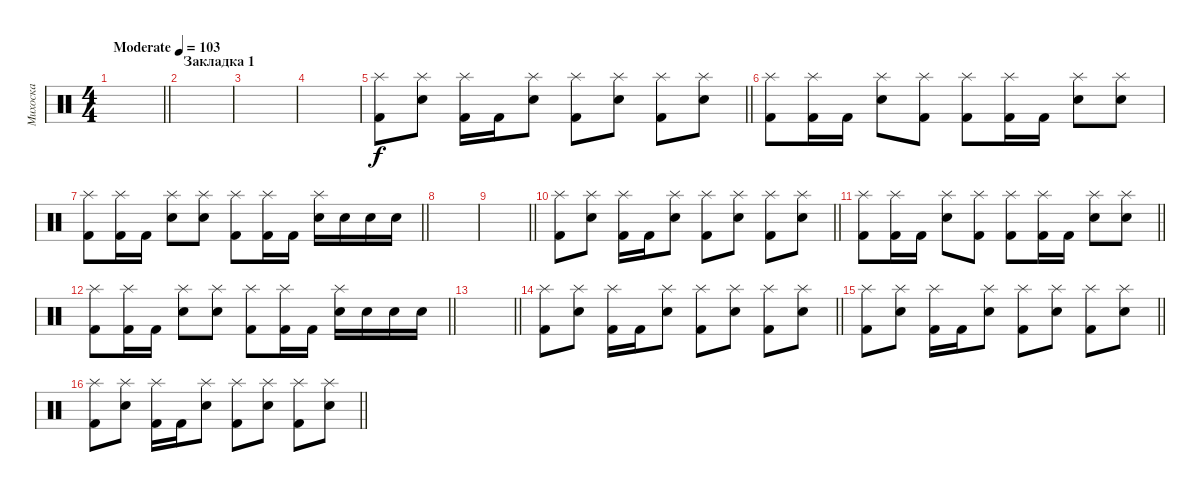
\track ("Михоска" "Михоска") {instrument percussion}
\staff {score}
\articulation defaults
\ts (4 4)
\tempo (103 "Moderate")
\clef neutral
\barLineRight lightlight
\ks c
|
\section ("" "Закладка 1")
|
|
|
\barLineRight lightlight
("Splash (hit)" "Kick (hit) 2").8 ("Splash (hit)" "Snare (hit) 2").8 ("Splash (hit)" "Kick (hit) 2").16 "Kick (hit) 2".16 ("Splash (hit)" "Snare (hit) 2").8 ("Splash (hit)" "Kick (hit) 2").8 ("Splash (hit)" "Snare (hit) 2").8 ("Splash (hit)" "Kick (hit) 2").8 ("Splash (hit)" "Snare (hit) 2").8 |
("Splash (hit)" "Kick (hit) 2").8 ("Splash (hit)" "Kick (hit) 2").16 "Kick (hit) 2".16 ("Splash (hit)" "Snare (hit) 2").8 ("Splash (hit)" "Kick (hit) 2").8 ("Splash (hit)" "Kick (hit) 2").8 ("Splash (hit)" "Kick (hit) 2").16 "Kick (hit) 2".16 ("Splash (hit)" "Snare (hit) 2").8 ("Splash (hit)" "Snare (hit) 2").8 |
\barLineRight lightlight
("Splash (hit)" "Kick (hit) 2").8 ("Splash (hit)" "Kick (hit) 2").16 "Kick (hit) 2".16 ("Splash (hit)" "Snare (hit) 2").8 ("Splash (hit)" "Snare (hit) 2").8 ("Splash (hit)" "Kick (hit) 2").8 ("Splash (hit)" "Kick (hit) 2").16 "Kick (hit) 2".16 ("Splash (hit)" "Snare (hit) 2").16 "Snare (hit) 2".16 "Snare (hit) 2".16 "Snare (hit) 2".16 |
|
\barLineRight lightlight
|
\barLineRight lightlight
("Splash (hit)" "Kick (hit) 2").8 ("Splash (hit)" "Snare (hit) 2").8 ("Splash (hit)" "Kick (hit) 2").16 "Kick (hit) 2".16 ("Splash (hit)" "Snare (hit) 2").8 ("Splash (hit)" "Kick (hit) 2").8 ("Splash (hit)" "Snare (hit) 2").8 ("Splash (hit)" "Kick (hit) 2").8 ("Splash (hit)" "Snare (hit) 2").8 |
\barLineRight lightlight
("Splash (hit)" "Kick (hit) 2").8 ("Splash (hit)" "Kick (hit) 2").16 "Kick (hit) 2".16 ("Splash (hit)" "Snare (hit) 2").8 ("Splash (hit)" "Kick (hit) 2").8 ("Splash (hit)" "Kick (hit) 2").8 ("Splash (hit)" "Kick (hit) 2").16 "Kick (hit) 2".16 ("Splash (hit)" "Snare (hit) 2").8 ("Splash (hit)" "Snare (hit) 2").8 |
\barLineRight lightlight
("Splash (hit)" "Kick (hit) 2").8 ("Splash (hit)" "Kick (hit) 2").16 "Kick (hit) 2".16 ("Splash (hit)" "Snare (hit) 2").8 ("Splash (hit)" "Snare (hit) 2").8 ("Splash (hit)" "Kick (hit) 2").8 ("Splash (hit)" "Kick (hit) 2").16 "Kick (hit) 2".16 ("Splash (hit)" "Snare (hit) 2").16 "Snare (hit) 2".16 "Snare (hit) 2".16 "Snare (hit) 2".16 |
\barLineRight lightlight
|
\barLineRight lightlight
("Splash (hit)" "Kick (hit) 2").8 ("Splash (hit)" "Snare (hit) 2").8 ("Splash (hit)" "Kick (hit) 2").16 "Kick (hit) 2".16 ("Splash (hit)" "Snare (hit) 2").8 ("Splash (hit)" "Kick (hit) 2").8 ("Splash (hit)" "Snare (hit) 2").8 ("Splash (hit)" "Kick (hit) 2").8 ("Splash (hit)" "Snare (hit) 2").8 |
\barLineRight lightlight
("Splash (hit)" "Kick (hit) 2").8 ("Splash (hit)" "Snare (hit) 2").8 ("Splash (hit)" "Kick (hit) 2").16 "Kick (hit) 2".16 ("Splash (hit)" "Snare (hit) 2").8 ("Splash (hit)" "Kick (hit) 2").8 ("Splash (hit)" "Snare (hit) 2").8 ("Splash (hit)" "Kick (hit) 2").8 ("Splash (hit)" "Snare (hit) 2").8 |
\barLineRight lightlight
("Splash (hit)" "Kick (hit) 2").8 ("Splash (hit)" "Snare (hit) 2").8 ("Splash (hit)" "Kick (hit) 2").16 "Kick (hit) 2".16 ("Splash (hit)" "Snare (hit) 2").8 ("Splash (hit)" "Kick (hit) 2").8 ("Splash (hit)" "Snare (hit) 2").8 ("Splash (hit)" "Kick (hit) 2").8 ("Splash (hit)" "Snare (hit) 2").8
